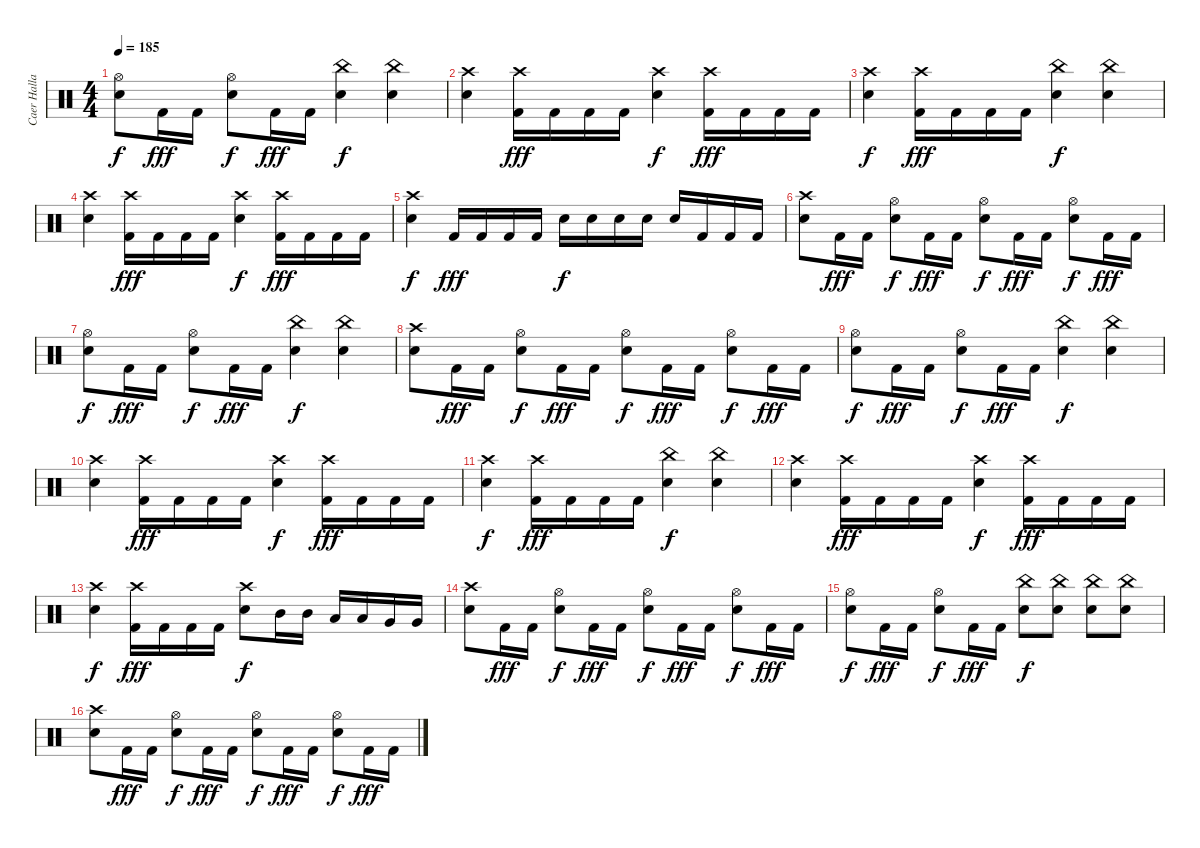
\track ("Caer Hallam Generis" "Caer Halla") {instrument percussion}
\staff {score}
\articulation defaults
\ts (4 4)
\tempo 185
\clef neutral
\ks c
("Hi-Hat (open)" "Snare (hit) 2").8{dy f} "Kick (hit) 2".16{dy fff} "Kick (hit) 2".16 ("Hi-Hat (open)" "Snare (hit) 2").8{dy f} "Kick (hit) 2".16{dy fff} "Kick (hit) 2".16 ("China (hit)" "Snare (hit) 2").4{dy f} ("China (hit)" "Snare (hit) 2").4 |
("Crash high (hit)" "Snare (hit) 2").4 ("Crash high (hit)" "Kick (hit) 2").16{dy fff} "Kick (hit) 2".16 "Kick (hit) 2".16 "Kick (hit) 2".16 ("Crash high (hit)" "Snare (hit) 2").4{dy f} ("Crash high (hit)" "Kick (hit) 2").16{dy fff} "Kick (hit) 2".16 "Kick (hit) 2".16 "Kick (hit) 2".16 |
("Crash high (hit)" "Snare (hit) 2").4{dy f} ("Crash high (hit)" "Kick (hit) 2").16{dy fff} "Kick (hit) 2".16 "Kick (hit) 2".16 "Kick (hit) 2".16 ("China (hit)" "Snare (hit) 2").4{dy f} ("China (hit)" "Snare (hit) 2").4 |
("Crash high (hit)" "Snare (hit) 2").4 ("Crash high (hit)" "Kick (hit) 2").16{dy fff} "Kick (hit) 2".16 "Kick (hit) 2".16 "Kick (hit) 2".16 ("Crash high (hit)" "Snare (hit) 2").4{dy f} ("Crash high (hit)" "Kick (hit) 2").16{dy fff} "Kick (hit) 2".16 "Kick (hit) 2".16 "Kick (hit) 2".16 |
("Crash high (hit)" "Snare (hit) 2").4{dy f} "Kick (hit) 2".16{dy fff} "Kick (hit) 2".16 "Kick (hit) 2".16 "Kick (hit) 2".16 "Snare (hit) 2".16{dy f} "Snare (hit) 2".16 "Snare (hit) 2".16 "Snare (hit) 2".16 "Snare (hit) 2".16 "Kick (hit) 2".16 "Kick (hit) 2".16 "Kick (hit) 2".16 |
("Crash high (hit)" "Snare (hit) 2").8 "Kick (hit) 2".16{dy fff} "Kick (hit) 2".16 ("Hi-Hat (open)" "Snare (hit) 2").8{dy f} "Kick (hit) 2".16{dy fff} "Kick (hit) 2".16 ("Hi-Hat (open)" "Snare (hit) 2").8{dy f} "Kick (hit) 2".16{dy fff} "Kick (hit) 2".16 ("Hi-Hat (open)" "Snare (hit) 2").8{dy f} "Kick (hit) 2".16{dy fff} "Kick (hit) 2".16 |
("Hi-Hat (open)" "Snare (hit) 2").8{dy f} "Kick (hit) 2".16{dy fff} "Kick (hit) 2".16 ("Hi-Hat (open)" "Snare (hit) 2").8{dy f} "Kick (hit) 2".16{dy fff} "Kick (hit) 2".16 ("China (hit)" "Snare (hit) 2").4{dy f} ("China (hit)" "Snare (hit) 2").4 |
("Crash high (hit)" "Snare (hit) 2").8 "Kick (hit) 2".16{dy fff} "Kick (hit) 2".16 ("Hi-Hat (open)" "Snare (hit) 2").8{dy f} "Kick (hit) 2".16{dy fff} "Kick (hit) 2".16 ("Hi-Hat (open)" "Snare (hit) 2").8{dy f} "Kick (hit) 2".16{dy fff} "Kick (hit) 2".16 ("Hi-Hat (open)" "Snare (hit) 2").8{dy f} "Kick (hit) 2".16{dy fff} "Kick (hit) 2".16 |
("Hi-Hat (open)" "Snare (hit) 2").8{dy f} "Kick (hit) 2".16{dy fff} "Kick (hit) 2".16 ("Hi-Hat (open)" "Snare (hit) 2").8{dy f} "Kick (hit) 2".16{dy fff} "Kick (hit) 2".16 ("China (hit)" "Snare (hit) 2").4{dy f} ("China (hit)" "Snare (hit) 2").4 |
("Crash high (hit)" "Snare (hit) 2").4 ("Crash high (hit)" "Kick (hit) 2").16{dy fff} "Kick (hit) 2".16 "Kick (hit) 2".16 "Kick (hit) 2".16 ("Crash high (hit)" "Snare (hit) 2").4{dy f} ("Crash high (hit)" "Kick (hit) 2").16{dy fff} "Kick (hit) 2".16 "Kick (hit) 2".16 "Kick (hit) 2".16 |
("Crash high (hit)" "Snare (hit) 2").4{dy f} ("Crash high (hit)" "Kick (hit) 2").16{dy fff} "Kick (hit) 2".16 "Kick (hit) 2".16 "Kick (hit) 2".16 ("China (hit)" "Snare (hit) 2").4{dy f} ("China (hit)" "Snare (hit) 2").4 |
("Crash high (hit)" "Snare (hit) 2").4 ("Crash high (hit)" "Kick (hit) 2").16{dy fff} "Kick (hit) 2".16 "Kick (hit) 2".16 "Kick (hit) 2".16 ("Crash high (hit)" "Snare (hit) 2").4{dy f} ("Crash high (hit)" "Kick (hit) 2").16{dy fff} "Kick (hit) 2".16 "Kick (hit) 2".16 "Kick (hit) 2".16 |
("Crash high (hit)" "Snare (hit) 2").4{dy f} ("Crash high (hit)" "Kick (hit) 2").16{dy fff} "Kick (hit) 2".16 "Kick (hit) 2".16 "Kick (hit) 2".16 ("Crash high (hit)" "Snare (hit) 2").8{dy f} "Mid Tom (hit)".16 "Mid Tom (hit)".16 "Low Tom (hit)".16 "Low Tom (hit)".16 "Very Low Tom (hit)".16 "Very Low Tom (hit)".16 |
("Crash high (hit)" "Snare (hit) 2").8 "Kick (hit) 2".16{dy fff} "Kick (hit) 2".16 ("Hi-Hat (open)" "Snare (hit) 2").8{dy f} "Kick (hit) 2".16{dy fff} "Kick (hit) 2".16 ("Hi-Hat (open)" "Snare (hit) 2").8{dy f} "Kick (hit) 2".16{dy fff} "Kick (hit) 2".16 ("Hi-Hat (open)" "Snare (hit) 2").8{dy f} "Kick (hit) 2".16{dy fff} "Kick (hit) 2".16 |
("Hi-Hat (open)" "Snare (hit) 2").8{dy f} "Kick (hit) 2".16{dy fff} "Kick (hit) 2".16 ("Hi-Hat (open)" "Snare (hit) 2").8{dy f} "Kick (hit) 2".16{dy fff} "Kick (hit) 2".16 ("China (hit)" "Snare (hit) 2").8{dy f} ("China (hit)" "Snare (hit) 2").8 ("China (hit)" "Snare (hit) 2").8 ("China (hit)" "Snare (hit) 2").8 |
("Crash high (hit)" "Snare (hit) 2").8 "Kick (hit) 2".16{dy fff} "Kick (hit) 2".16 ("Hi-Hat (open)" "Snare (hit) 2").8{dy f} "Kick (hit) 2".16{dy fff} "Kick (hit) 2".16 ("Hi-Hat (open)" "Snare (hit) 2").8{dy f} "Kick (hit) 2".16{dy fff} "Kick (hit) 2".16 ("Hi-Hat (open)" "Snare (hit) 2").8{dy f} "Kick (hit) 2".16{dy fff} "Kick (hit) 2".16
